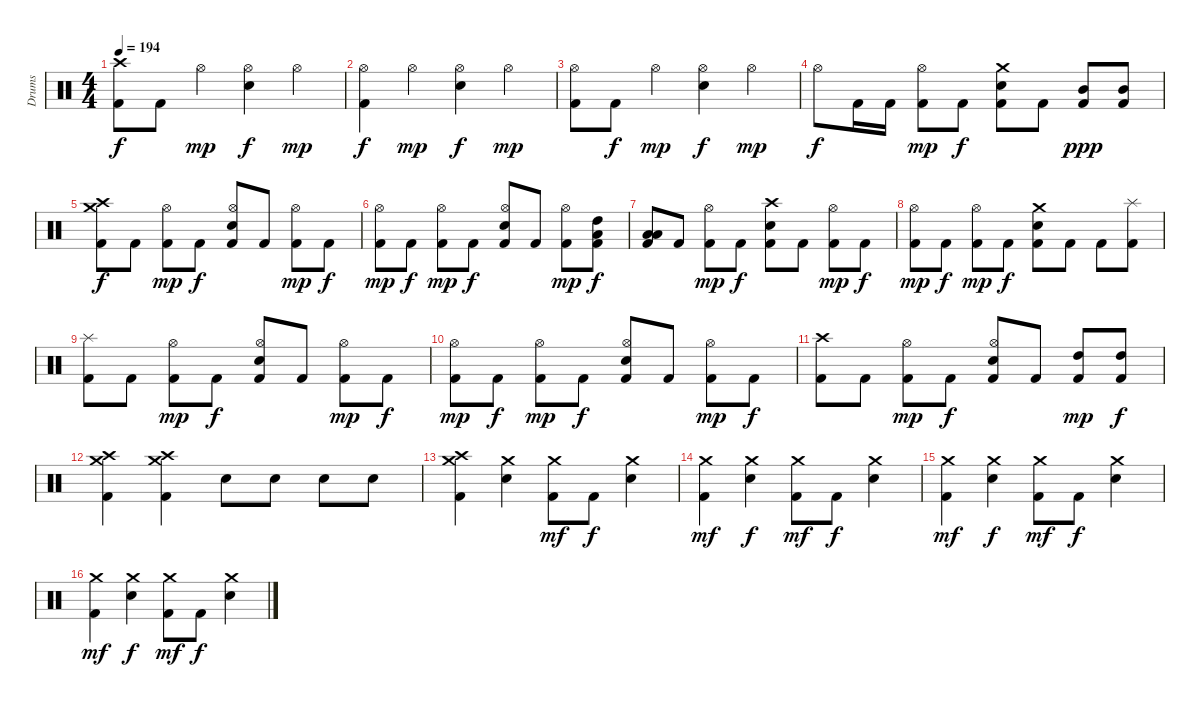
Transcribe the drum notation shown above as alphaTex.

\track ("Drums" "Drums") {instrument percussion}
\staff {score}
\articulation defaults
\ts (4 4)
\tempo 194
\clef neutral
\ks c
("Crash high (hit)" "Kick (hit) 2").8{dy f} "Kick (hit) 2".8 "Hi-Hat (open)".4{dy mp} ("Hi-Hat (open)" "Electric Snare (hit)").4{dy f} "Hi-Hat (open)".4{dy mp} |
("Hi-Hat (open)" "Kick (hit) 2").4{dy f} "Hi-Hat (open)".4{dy mp} ("Hi-Hat (open)" "Electric Snare (hit)").4{dy f} "Hi-Hat (open)".4{dy mp} |
("Hi-Hat (open)" "Kick (hit) 2").8 "Kick (hit) 2".8{dy f} "Hi-Hat (open)".4{dy mp} ("Hi-Hat (open)" "Electric Snare (hit)").4{dy f} "Hi-Hat (open)".4{dy mp} |
"Hi-Hat (open)".8{dy f} "Kick (hit) 2".16 "Kick (hit) 2".16 ("Hi-Hat (open)" "Kick (hit) 2").8{dy mp} "Kick (hit) 2".8{dy f} ("Crash medium (hit)" "Electric Snare (hit)" "Kick (hit) 2").8 "Kick (hit) 2".8 ("Mid Tom (hit)" "Kick (hit) 2").8{dy ppp} ("Mid Tom (hit)" "Kick (hit) 2").8 |
("Crash high (hit)" "Crash medium (hit)" "Kick (hit) 2").8{dy f} "Kick (hit) 2".8 ("Hi-Hat (open)" "Kick (hit) 2").8{dy mp} "Kick (hit) 2".8{dy f} ("Hi-Hat (open)" "Electric Snare (hit)" "Kick (hit) 2").8 "Kick (hit) 2".8 ("Hi-Hat (open)" "Kick (hit) 2").8{dy mp} "Kick (hit) 2".8{dy f} |
("Hi-Hat (open)" "Kick (hit) 2").8{dy mp} "Kick (hit) 2".8{dy f} ("Hi-Hat (open)" "Kick (hit) 2").8{dy mp} "Kick (hit) 2".8{dy f} ("Hi-Hat (open)" "Electric Snare (hit)" "Kick (hit) 2").8 "Kick (hit) 2".8 ("Hi-Hat (open)" "Kick (hit) 2").8{dy mp} ("High Tom (hit)" "Low Tom (hit)" "Kick (hit) 2").8{dy f} |
("Low Tom (hit)" "Low Tom (hit)" "Kick (hit) 2").8 "Kick (hit) 2".8 ("Hi-Hat (open)" "Kick (hit) 2").8{dy mp} "Kick (hit) 2".8{dy f} ("Crash high (hit)" "Electric Snare (hit)" "Kick (hit) 2").8 "Kick (hit) 2".8 ("Hi-Hat (open)" "Kick (hit) 2").8{dy mp} "Kick (hit) 2".8{dy f} |
("Hi-Hat (open)" "Kick (hit) 2").8{dy mp} "Kick (hit) 2".8{dy f} ("Hi-Hat (open)" "Kick (hit) 2").8{dy mp} "Kick (hit) 2".8{dy f} ("Crash medium (hit)" "Electric Snare (hit)" "Kick (hit) 2").8 "Kick (hit) 2".8 "Kick (hit) 2".8 ("Splash (hit)" "Kick (hit) 2").8 |
("Splash (hit)" "Kick (hit) 2").8 "Kick (hit) 2".8 ("Hi-Hat (open)" "Kick (hit) 2").8{dy mp} "Kick (hit) 2".8{dy f} ("Hi-Hat (open)" "Electric Snare (hit)" "Kick (hit) 2").8 "Kick (hit) 2".8 ("Hi-Hat (open)" "Kick (hit) 2").8{dy mp} "Kick (hit) 2".8{dy f} |
("Hi-Hat (open)" "Kick (hit) 2").8{dy mp} "Kick (hit) 2".8{dy f} ("Hi-Hat (open)" "Kick (hit) 2").8{dy mp} "Kick (hit) 2".8{dy f} ("Hi-Hat (open)" "Electric Snare (hit)" "Kick (hit) 2").8 "Kick (hit) 2".8 ("Hi-Hat (open)" "Kick (hit) 2").8{dy mp} "Kick (hit) 2".8{dy f} |
("Crash high (hit)" "Kick (hit) 2").8 "Kick (hit) 2".8 ("Hi-Hat (open)" "Kick (hit) 2").8{dy mp} "Kick (hit) 2".8{dy f} ("Hi-Hat (open)" "Electric Snare (hit)" "Kick (hit) 2").8 "Kick (hit) 2".8 ("High Tom (hit)" "Kick (hit) 2").8{dy mp} ("High Tom (hit)" "Kick (hit) 2").8{dy f} |
("Crash high (hit)" "Crash medium (hit)" "Kick (hit) 2").4 ("Crash high (hit)" "Crash medium (hit)" "Kick (hit) 2").4 "Electric Snare (hit)".8 "Electric Snare (hit)".8 "Electric Snare (hit)".8 "Electric Snare (hit)".8 |
("Crash high (hit)" "Crash medium (hit)" "Kick (hit) 2").4 ("Crash medium (hit)" "Electric Snare (hit)").4 ("Crash medium (hit)" "Kick (hit) 2").8{dy mf} "Kick (hit) 2".8{dy f} ("Crash medium (hit)" "Electric Snare (hit)").4 |
("Crash medium (hit)" "Kick (hit) 2").4{dy mf} ("Crash medium (hit)" "Electric Snare (hit)").4{dy f} ("Crash medium (hit)" "Kick (hit) 2").8{dy mf} "Kick (hit) 2".8{dy f} ("Crash medium (hit)" "Electric Snare (hit)").4 |
("Crash medium (hit)" "Kick (hit) 2").4{dy mf} ("Crash medium (hit)" "Electric Snare (hit)").4{dy f} ("Crash medium (hit)" "Kick (hit) 2").8{dy mf} "Kick (hit) 2".8{dy f} ("Crash medium (hit)" "Electric Snare (hit)").4 |
("Crash medium (hit)" "Kick (hit) 2").4{dy mf} ("Crash medium (hit)" "Electric Snare (hit)").4{dy f} ("Crash medium (hit)" "Kick (hit) 2").8{dy mf} "Kick (hit) 2".8{dy f} ("Crash medium (hit)" "Electric Snare (hit)").4
